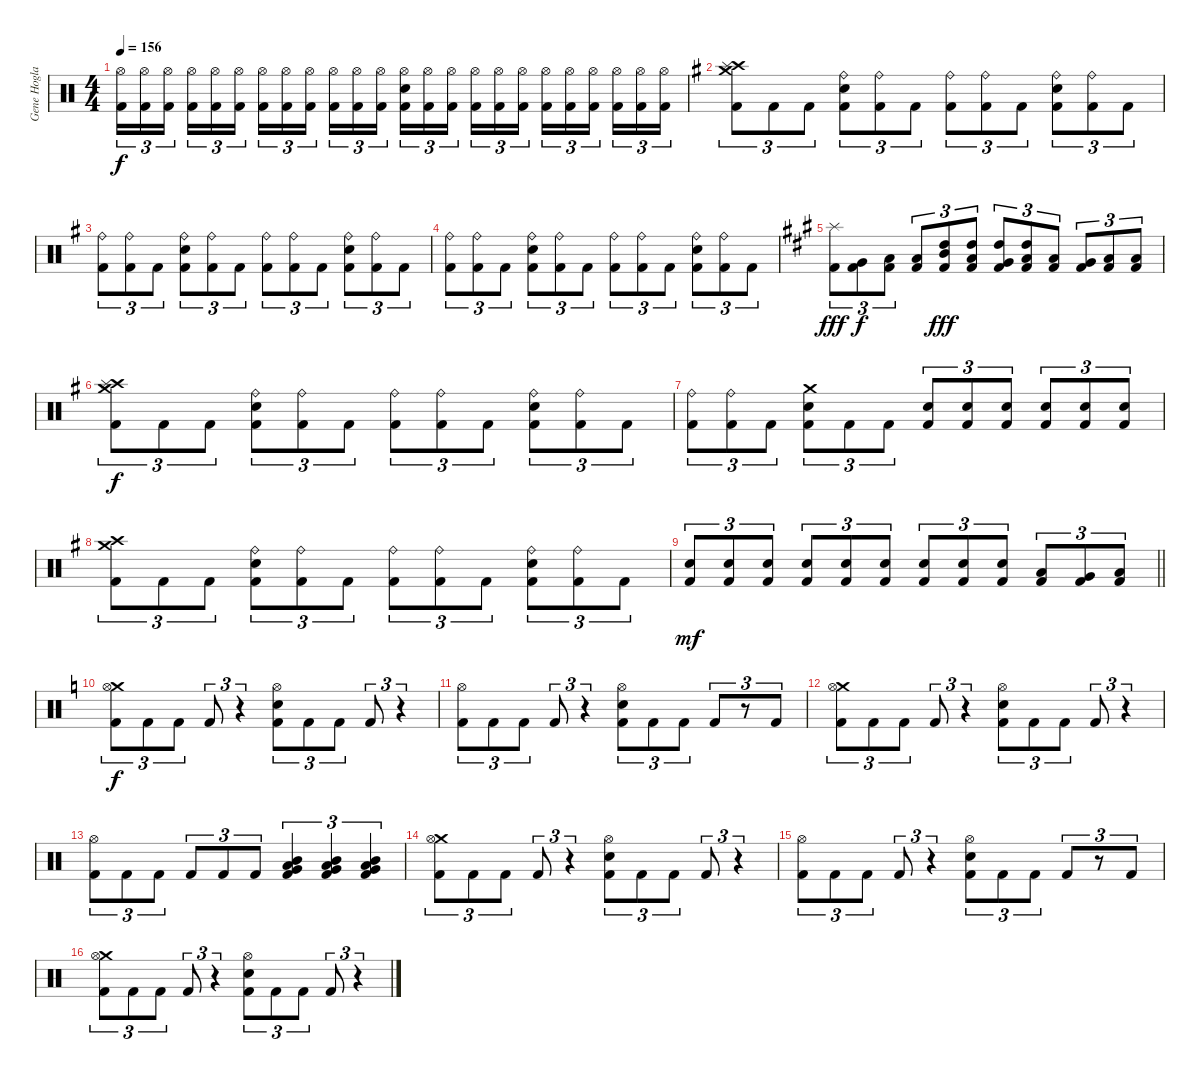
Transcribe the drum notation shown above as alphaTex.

\track ("Gene Hoglan" "Gene Hogla") {instrument percussion}
\staff {score}
\articulation defaults
\ts (4 4)
\tempo 156
\clef neutral
\ks c
("Hi-Hat (open)" "Kick (hit) 2").16{tu (3 2) dy f} ("Hi-Hat (open)" "Kick (hit) 2").16{tu (3 2)} ("Hi-Hat (open)" "Kick (hit) 2").16{tu (3 2) beam splitsecondary} ("Hi-Hat (open)" "Kick (hit) 2").16{tu (3 2)} ("Hi-Hat (open)" "Kick (hit) 2").16{tu (3 2)} ("Hi-Hat (open)" "Kick (hit) 2").16{tu (3 2)} ("Hi-Hat (open)" "Kick (hit) 2").16{tu (3 2)} ("Hi-Hat (open)" "Kick (hit) 2").16{tu (3 2)} ("Hi-Hat (open)" "Kick (hit) 2").16{tu (3 2) beam splitsecondary} ("Hi-Hat (open)" "Kick (hit) 2").16{tu (3 2)} ("Hi-Hat (open)" "Kick (hit) 2").16{tu (3 2)} ("Hi-Hat (open)" "Kick (hit) 2").16{tu (3 2)} ("Hi-Hat (open)" "Electric Snare (hit)" "Kick (hit) 2").16{tu (3 2)} ("Hi-Hat (open)" "Kick (hit) 2").16{tu (3 2)} ("Hi-Hat (open)" "Kick (hit) 2").16{tu (3 2) beam splitsecondary} ("Hi-Hat (open)" "Kick (hit) 2").16{tu (3 2)} ("Hi-Hat (open)" "Kick (hit) 2").16{tu (3 2)} ("Hi-Hat (open)" "Kick (hit) 2").16{tu (3 2)} ("Hi-Hat (open)" "Kick (hit) 2").16{tu (3 2)} ("Hi-Hat (open)" "Kick (hit) 2").16{tu (3 2)} ("Hi-Hat (open)" "Kick (hit) 2").16{tu (3 2) beam splitsecondary} ("Hi-Hat (open)" "Kick (hit) 2").16{tu (3 2)} ("Hi-Hat (open)" "Kick (hit) 2").16{tu (3 2)} ("Hi-Hat (open)" "Kick (hit) 2").16{tu (3 2)} |
\ks g
("Crash medium (hit)" "Crash high (hit)" "Splash (hit)" "Kick (hit) 2").8{tu (3 2)} "Kick (hit) 2".8{tu (3 2)} "Kick (hit) 2".8{tu (3 2)} ("Ride (bell)" "Electric Snare (hit)" "Kick (hit) 2").8{tu (3 2)} ("Ride (bell)" "Kick (hit) 2").8{tu (3 2)} "Kick (hit) 2".8{tu (3 2)} ("Ride (bell)" "Kick (hit) 2").8{tu (3 2)} ("Ride (bell)" "Kick (hit) 2").8{tu (3 2)} "Kick (hit) 2".8{tu (3 2)} ("Ride (bell)" "Electric Snare (hit)" "Kick (hit) 2").8{tu (3 2)} ("Ride (bell)" "Kick (hit) 2").8{tu (3 2)} "Kick (hit) 2".8{tu (3 2)} |
("Ride (bell)" "Kick (hit) 2").8{tu (3 2)} ("Ride (bell)" "Kick (hit) 2").8{tu (3 2)} "Kick (hit) 2".8{tu (3 2)} ("Ride (bell)" "Electric Snare (hit)" "Kick (hit) 2").8{tu (3 2)} ("Ride (bell)" "Kick (hit) 2").8{tu (3 2)} "Kick (hit) 2".8{tu (3 2)} ("Ride (bell)" "Kick (hit) 2").8{tu (3 2)} ("Ride (bell)" "Kick (hit) 2").8{tu (3 2)} "Kick (hit) 2".8{tu (3 2)} ("Ride (bell)" "Electric Snare (hit)" "Kick (hit) 2").8{tu (3 2)} ("Ride (bell)" "Kick (hit) 2").8{tu (3 2)} "Kick (hit) 2".8{tu (3 2)} |
("Ride (bell)" "Kick (hit) 2").8{tu (3 2)} ("Ride (bell)" "Kick (hit) 2").8{tu (3 2)} "Kick (hit) 2".8{tu (3 2)} ("Ride (bell)" "Electric Snare (hit)" "Kick (hit) 2").8{tu (3 2)} ("Ride (bell)" "Kick (hit) 2").8{tu (3 2)} "Kick (hit) 2".8{tu (3 2)} ("Ride (bell)" "Kick (hit) 2").8{tu (3 2)} ("Ride (bell)" "Kick (hit) 2").8{tu (3 2)} "Kick (hit) 2".8{tu (3 2)} ("Ride (bell)" "Electric Snare (hit)" "Kick (hit) 2").8{tu (3 2)} ("Ride (bell)" "Kick (hit) 2").8{tu (3 2)} "Kick (hit) 2".8{tu (3 2)} |
\ks a
("Splash (hit)" "Kick (hit) 2").8{tu (3 2) dy fff} ("Very Low Tom (hit)" "Kick (hit) 2").8{tu (3 2) dy f} ("Low Floor Tom (hit)" "Kick (hit) 2").8{tu (3 2)} ("Low Tom (hit)" "Kick (hit) 2").8{tu (3 2)} ("High Tom (hit)" "Mid Tom (hit)" "Kick (hit) 2").8{tu (3 2) dy fff} ("High Tom (hit)" "Low Tom (hit)" "Kick (hit) 2").8{tu (3 2)} ("High Tom (hit)" "Very Low Tom (hit)" "Kick (hit) 2").8{tu (3 2)} ("High Tom (hit)" "Low Tom (hit)" "Kick (hit) 2").8{tu (3 2)} ("Low Tom (hit)" "Kick (hit) 2").8{tu (3 2)} ("Very Low Tom (hit)" "Kick (hit) 2").8{tu (3 2)} ("Low Floor Tom (hit)" "Kick (hit) 2").8{tu (3 2)} ("Low Floor Tom (hit)" "Kick (hit) 2").8{tu (3 2)} |
\ks g
("Crash medium (hit)" "Crash high (hit)" "Splash (hit)" "Kick (hit) 2").8{tu (3 2) dy f} "Kick (hit) 2".8{tu (3 2)} "Kick (hit) 2".8{tu (3 2)} ("Ride (bell)" "Electric Snare (hit)" "Kick (hit) 2").8{tu (3 2)} ("Ride (bell)" "Kick (hit) 2").8{tu (3 2)} "Kick (hit) 2".8{tu (3 2)} ("Ride (bell)" "Kick (hit) 2").8{tu (3 2)} ("Ride (bell)" "Kick (hit) 2").8{tu (3 2)} "Kick (hit) 2".8{tu (3 2)} ("Ride (bell)" "Electric Snare (hit)" "Kick (hit) 2").8{tu (3 2)} ("Ride (bell)" "Kick (hit) 2").8{tu (3 2)} "Kick (hit) 2".8{tu (3 2)} |
("Ride (bell)" "Kick (hit) 2").8{tu (3 2)} ("Ride (bell)" "Kick (hit) 2").8{tu (3 2)} "Kick (hit) 2".8{tu (3 2)} ("Crash medium (hit)" "Electric Snare (hit)" "Kick (hit) 2").8{tu (3 2)} "Kick (hit) 2".8{tu (3 2)} "Kick (hit) 2".8{tu (3 2)} ("Electric Snare (hit)" "Kick (hit) 2").8{tu (3 2)} ("Electric Snare (hit)" "Kick (hit) 2").8{tu (3 2)} ("Electric Snare (hit)" "Kick (hit) 2").8{tu (3 2)} ("Electric Snare (hit)" "Kick (hit) 2").8{tu (3 2)} ("Electric Snare (hit)" "Kick (hit) 2").8{tu (3 2)} ("Electric Snare (hit)" "Kick (hit) 2").8{tu (3 2)} |
("Crash medium (hit)" "Crash high (hit)" "Kick (hit) 2").8{tu (3 2)} "Kick (hit) 2".8{tu (3 2)} "Kick (hit) 2".8{tu (3 2)} ("Ride (bell)" "Electric Snare (hit)" "Kick (hit) 2").8{tu (3 2)} ("Ride (bell)" "Kick (hit) 2").8{tu (3 2)} "Kick (hit) 2".8{tu (3 2)} ("Ride (bell)" "Kick (hit) 2").8{tu (3 2)} ("Ride (bell)" "Kick (hit) 2").8{tu (3 2)} "Kick (hit) 2".8{tu (3 2)} ("Ride (bell)" "Electric Snare (hit)" "Kick (hit) 2").8{tu (3 2)} ("Ride (bell)" "Kick (hit) 2").8{tu (3 2)} "Kick (hit) 2".8{tu (3 2)} |
\barLineRight lightlight
("Electric Snare (hit)" "Kick (hit) 2").8{tu (3 2) dy mf} ("Electric Snare (hit)" "Kick (hit) 2").8{tu (3 2)} ("Electric Snare (hit)" "Kick (hit) 2").8{tu (3 2)} ("Electric Snare (hit)" "Kick (hit) 2").8{tu (3 2)} ("Electric Snare (hit)" "Kick (hit) 2").8{tu (3 2)} ("Electric Snare (hit)" "Kick (hit) 2").8{tu (3 2)} ("Electric Snare (hit)" "Kick (hit) 2").8{tu (3 2)} ("Electric Snare (hit)" "Kick (hit) 2").8{tu (3 2)} ("Electric Snare (hit)" "Kick (hit) 2").8{tu (3 2)} ("Low Floor Tom (hit)" "Kick (hit) 2").8{tu (3 2)} ("Very Low Tom (hit)" "Kick (hit) 2").8{tu (3 2)} ("Low Tom (hit)" "Kick (hit) 2").8{tu (3 2)} |
\ks c
("Crash medium (hit)" "Hi-Hat (open)" "Kick (hit) 2").8{tu (3 2) dy f} "Kick (hit) 2".8{tu (3 2)} "Kick (hit) 2".8{tu (3 2)} "Kick (hit) 2".8{tu (3 2)} r.4{tu (3 2)} ("Hi-Hat (open)" "Electric Snare (hit)" "Kick (hit) 2").8{tu (3 2)} "Kick (hit) 2".8{tu (3 2)} "Kick (hit) 2".8{tu (3 2)} "Kick (hit) 2".8{tu (3 2)} r.4{tu (3 2)} |
("Hi-Hat (open)" "Kick (hit) 2").8{tu (3 2)} "Kick (hit) 2".8{tu (3 2)} "Kick (hit) 2".8{tu (3 2)} "Kick (hit) 2".8{tu (3 2)} r.4{tu (3 2)} ("Hi-Hat (open)" "Electric Snare (hit)" "Kick (hit) 2").8{tu (3 2)} "Kick (hit) 2".8{tu (3 2)} "Kick (hit) 2".8{tu (3 2)} "Kick (hit) 2".8{tu (3 2)} r.8{tu (3 2)} "Kick (hit) 2".8{tu (3 2)} |
("Crash medium (hit)" "Hi-Hat (open)" "Kick (hit) 2").8{tu (3 2)} "Kick (hit) 2".8{tu (3 2)} "Kick (hit) 2".8{tu (3 2)} "Kick (hit) 2".8{tu (3 2)} r.4{tu (3 2)} ("Hi-Hat (open)" "Electric Snare (hit)" "Kick (hit) 2").8{tu (3 2)} "Kick (hit) 2".8{tu (3 2)} "Kick (hit) 2".8{tu (3 2)} "Kick (hit) 2".8{tu (3 2)} r.4{tu (3 2)} |
("Hi-Hat (open)" "Kick (hit) 2").8{tu (3 2)} "Kick (hit) 2".8{tu (3 2)} "Kick (hit) 2".8{tu (3 2)} "Kick (hit) 2".8{tu (3 2)} "Kick (hit) 2".8{tu (3 2)} "Kick (hit) 2".8{tu (3 2)} ("Mid Tom (hit)" "Very Low Tom (hit)" "Low Tom (hit)" "Kick (hit) 2").4{tu (3 2)} ("Mid Tom (hit)" "Very Low Tom (hit)" "Low Tom (hit)" "Kick (hit) 2").4{tu (3 2)} ("Mid Tom (hit)" "Very Low Tom (hit)" "Low Tom (hit)" "Kick (hit) 2").4{tu (3 2)} |
("Crash medium (hit)" "Hi-Hat (open)" "Kick (hit) 2").8{tu (3 2)} "Kick (hit) 2".8{tu (3 2)} "Kick (hit) 2".8{tu (3 2)} "Kick (hit) 2".8{tu (3 2)} r.4{tu (3 2)} ("Hi-Hat (open)" "Electric Snare (hit)" "Kick (hit) 2").8{tu (3 2)} "Kick (hit) 2".8{tu (3 2)} "Kick (hit) 2".8{tu (3 2)} "Kick (hit) 2".8{tu (3 2)} r.4{tu (3 2)} |
("Hi-Hat (open)" "Kick (hit) 2").8{tu (3 2)} "Kick (hit) 2".8{tu (3 2)} "Kick (hit) 2".8{tu (3 2)} "Kick (hit) 2".8{tu (3 2)} r.4{tu (3 2)} ("Hi-Hat (open)" "Electric Snare (hit)" "Kick (hit) 2").8{tu (3 2)} "Kick (hit) 2".8{tu (3 2)} "Kick (hit) 2".8{tu (3 2)} "Kick (hit) 2".8{tu (3 2)} r.8{tu (3 2)} "Kick (hit) 2".8{tu (3 2)} |
("Crash medium (hit)" "Hi-Hat (open)" "Kick (hit) 2").8{tu (3 2)} "Kick (hit) 2".8{tu (3 2)} "Kick (hit) 2".8{tu (3 2)} "Kick (hit) 2".8{tu (3 2)} r.4{tu (3 2)} ("Hi-Hat (open)" "Electric Snare (hit)" "Kick (hit) 2").8{tu (3 2)} "Kick (hit) 2".8{tu (3 2)} "Kick (hit) 2".8{tu (3 2)} "Kick (hit) 2".8{tu (3 2)} r.4{tu (3 2)}
